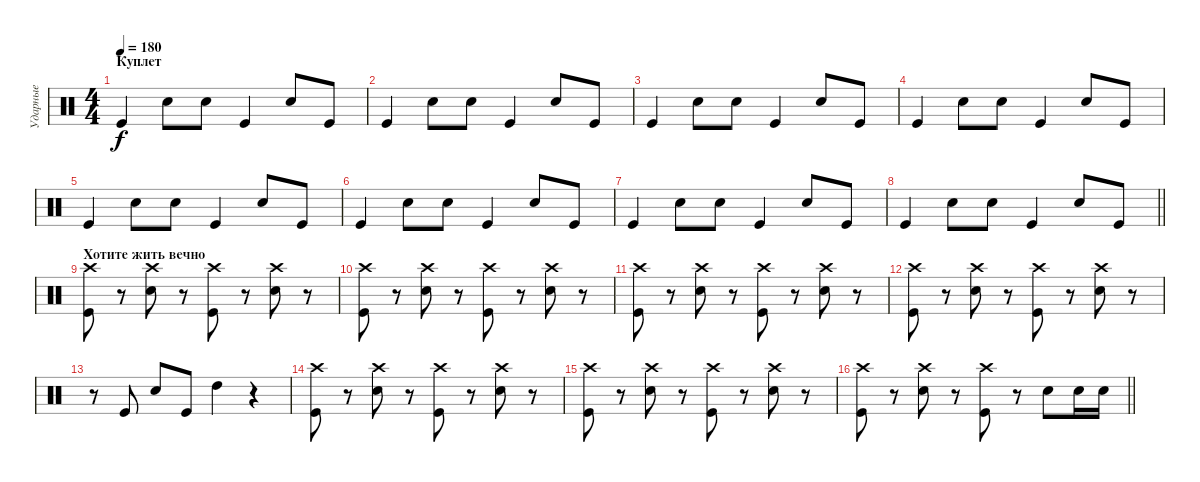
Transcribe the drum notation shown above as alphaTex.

\track ("Ударные" "Ударные") {instrument percussion}
\staff {score}
\articulation defaults
\ts (4 4)
\section ("" "Куплет")
\tempo 180
\clef neutral
\ks c "Kick (hit)".4{dy f} "Electric Snare (hit)".8 "Electric Snare (hit)".8 "Kick (hit)".4 "Electric Snare (hit)".8 "Kick (hit)".8
|
"Kick (hit)".4 "Electric Snare (hit)".8 "Electric Snare (hit)".8 "Kick (hit)".4 "Electric Snare (hit)".8 "Kick (hit)".8 |
"Kick (hit)".4 "Electric Snare (hit)".8 "Electric Snare (hit)".8 "Kick (hit)".4 "Electric Snare (hit)".8 "Kick (hit)".8 |
"Kick (hit)".4 "Electric Snare (hit)".8 "Electric Snare (hit)".8 "Kick (hit)".4 "Electric Snare (hit)".8 "Kick (hit)".8 |
"Kick (hit)".4 "Electric Snare (hit)".8 "Electric Snare (hit)".8 "Kick (hit)".4 "Electric Snare (hit)".8 "Kick (hit)".8 |
"Kick (hit)".4 "Electric Snare (hit)".8 "Electric Snare (hit)".8 "Kick (hit)".4 "Electric Snare (hit)".8 "Kick (hit)".8 |
"Kick (hit)".4 "Electric Snare (hit)".8 "Electric Snare (hit)".8 "Kick (hit)".4 "Electric Snare (hit)".8 "Kick (hit)".8 |
\barLineRight lightlight "Kick (hit)".4 "Electric Snare (hit)".8 "Electric Snare (hit)".8 "Kick (hit)".4 "Electric Snare (hit)".8 "Kick (hit)".8
|
\section ("" "Хотите жить вечно")
("Kick (hit)" "Crash high (hit)").8 r.8 ("Electric Snare (hit)" "Crash high (hit)").8 r.8 ("Kick (hit)" "Crash high (hit)").8 r.8 ("Electric Snare (hit)" "Crash high (hit)").8 r.8 |
("Kick (hit)" "Crash high (hit)").8 r.8 ("Electric Snare (hit)" "Crash high (hit)").8 r.8 ("Kick (hit)" "Crash high (hit)").8 r.8 ("Electric Snare (hit)" "Crash high (hit)").8 r.8 |
("Kick (hit)" "Crash high (hit)").8 r.8 ("Electric Snare (hit)" "Crash high (hit)").8 r.8 ("Kick (hit)" "Crash high (hit)").8 r.8 ("Electric Snare (hit)" "Crash high (hit)").8 r.8 |
("Kick (hit)" "Crash high (hit)").8 r.8 ("Electric Snare (hit)" "Crash high (hit)").8 r.8 ("Kick (hit)" "Crash high (hit)").8 r.8 ("Electric Snare (hit)" "Crash high (hit)").8 r.8 |
r.8 "Kick (hit)".8 "Electric Snare (hit)".8 "Kick (hit)".8 "High Tom (hit)".4 r.4 |
("Kick (hit)" "Crash high (hit)").8 r.8 ("Electric Snare (hit)" "Crash high (hit)").8 r.8 ("Kick (hit)" "Crash high (hit)").8 r.8 ("Electric Snare (hit)" "Crash high (hit)").8 r.8 |
("Kick (hit)" "Crash high (hit)").8 r.8 ("Electric Snare (hit)" "Crash high (hit)").8 r.8 ("Kick (hit)" "Crash high (hit)").8 r.8 ("Electric Snare (hit)" "Crash high (hit)").8 r.8 |
\barLineRight lightlight
("Kick (hit)" "Crash high (hit)").8 r.8 ("Electric Snare (hit)" "Crash high (hit)").8 r.8 ("Kick (hit)" "Crash high (hit)").8 r.8 "Electric Snare (hit)".8 "Electric Snare (hit)".16 "Electric Snare (hit)".16
